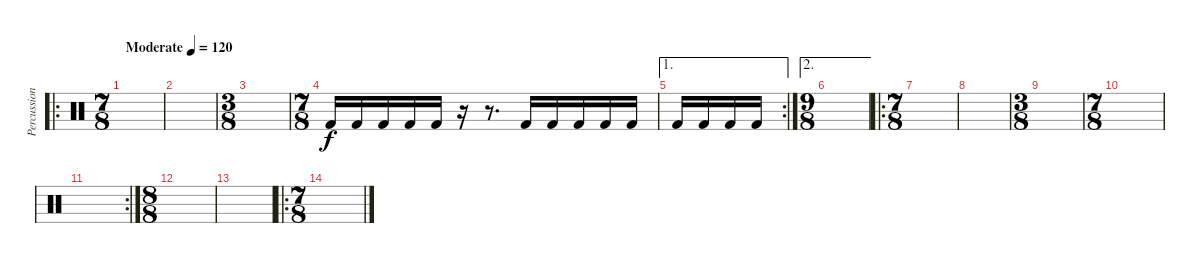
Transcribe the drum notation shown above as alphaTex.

\track ("Percussion" "Percussion") {instrument percussion}
\staff {score}
\articulation defaults
\ro
\ts (7 8)
\tempo (120 "Moderate")
\clef neutral
\ks c
|
|
\ts (3 8)
|
\ts (7 8)
"Kick (hit) 2".16 "Kick (hit) 2".16 "Kick (hit) 2".16 "Kick (hit) 2".16 "Kick (hit) 2".16 r.16 r.8{d} "Kick (hit) 2".16 "Kick (hit) 2".16 "Kick (hit) 2".16 "Kick (hit) 2".16 "Kick (hit) 2".16 |
\ae 1
\rc 2 "Kick (hit) 2".16 "Kick (hit) 2".16 "Kick (hit) 2".16 "Kick (hit) 2".16
|
\ae 2
\ts (9 8)
|
\ro
\ts (7 8)
|
|
\ts (3 8)
|
\ts (7 8)
|
\rc 2
|
\ts (8 8)
|
|
\ro
\ts (7 8)
